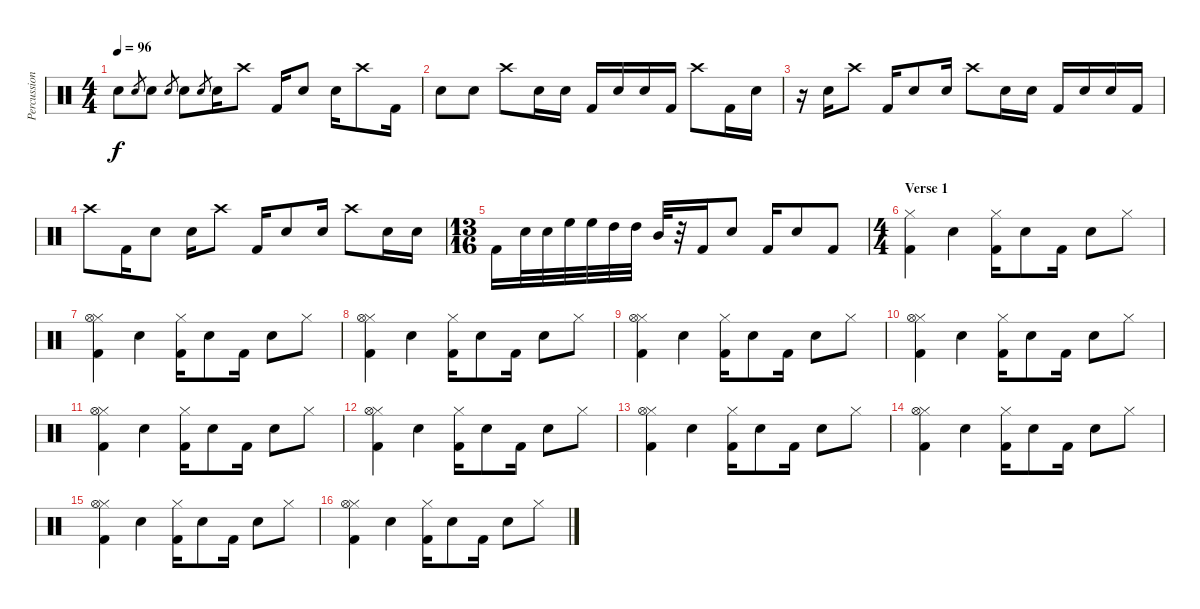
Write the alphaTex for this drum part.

\track ("Percussion" "Percussion") {instrument percussion}
\staff {score}
\articulation defaults
\ts (4 4)
\tempo 96
\clef neutral
\ks c "Electric Snare (hit)".8{dy f} "Electric Snare (hit)".8{gr} "Electric Snare (hit)".8 "Electric Snare (hit)".8{gr} "Electric Snare (hit)".8 "Electric Snare (hit)".8{gr} "Electric Snare (hit)".16 "Crash high (hit)".8 "Kick (hit) 2".16 "Electric Snare (hit)".8 "Electric Snare (hit)".16 "Crash high (hit)".8 "Kick (hit) 2".16
|
"Electric Snare (hit)".8 "Electric Snare (hit)".8 "Crash high (hit)".8 "Electric Snare (hit)".16 "Electric Snare (hit)".16 "Kick (hit) 2".16 "Electric Snare (hit)".16 "Electric Snare (hit)".16 "Kick (hit) 2".16 "Crash high (hit)".8 "Kick (hit) 2".16 "Electric Snare (hit)".16 |
r.16 "Electric Snare (hit)".16 "Crash high (hit)".8 "Kick (hit) 2".16 "Electric Snare (hit)".8 "Electric Snare (hit)".16 "Crash high (hit)".8 "Electric Snare (hit)".16 "Electric Snare (hit)".16 "Kick (hit) 2".16 "Electric Snare (hit)".16 "Electric Snare (hit)".16 "Kick (hit) 2".16 |
"Crash high (hit)".8 "Kick (hit) 2".16 "Electric Snare (hit)".8 "Electric Snare (hit)".16 "Crash high (hit)".8 "Kick (hit) 2".16 "Electric Snare (hit)".8 "Electric Snare (hit)".16 "Crash high (hit)".8 "Electric Snare (hit)".16 "Electric Snare (hit)".16 |
\ts (13 16)
"Kick (hit) 2".16 "Electric Snare (hit)".32 "Electric Snare (hit)".32 "High Floor Tom (hit)".32 "High Floor Tom (hit)".32 "High Tom (hit)".32 "High Tom (hit)".32 "Mid Tom (hit)".32 r.32 "Kick (hit) 2".16 "Electric Snare (hit)".8 "Kick (hit) 2".16 "Electric Snare (hit)".8 "Kick (hit) 2".8 |
\ts (4 4)
\section ("" "Verse 1")
("Hi-Hat (closed)" "Kick (hit) 2").4 "Electric Snare (hit)".4 ("Hi-Hat (closed)" "Kick (hit) 2").16 "Electric Snare (hit)".8 "Kick (hit) 2".16 "Electric Snare (hit)".8 "Hi-Hat (closed)".8 |
("Hi-Hat (closed)" "Hi-Hat (open)" "Kick (hit) 2").4 "Electric Snare (hit)".4 ("Hi-Hat (closed)" "Kick (hit) 2").16 "Electric Snare (hit)".8 "Kick (hit) 2".16 "Electric Snare (hit)".8 "Hi-Hat (closed)".8 |
("Hi-Hat (closed)" "Hi-Hat (open)" "Kick (hit) 2").4 "Electric Snare (hit)".4 ("Hi-Hat (closed)" "Kick (hit) 2").16 "Electric Snare (hit)".8 "Kick (hit) 2".16 "Electric Snare (hit)".8 "Hi-Hat (closed)".8 |
("Hi-Hat (closed)" "Hi-Hat (open)" "Kick (hit) 2").4 "Electric Snare (hit)".4 ("Hi-Hat (closed)" "Kick (hit) 2").16 "Electric Snare (hit)".8 "Kick (hit) 2".16 "Electric Snare (hit)".8 "Hi-Hat (closed)".8 |
("Hi-Hat (closed)" "Hi-Hat (open)" "Kick (hit) 2").4 "Electric Snare (hit)".4 ("Hi-Hat (closed)" "Kick (hit) 2").16 "Electric Snare (hit)".8 "Kick (hit) 2".16 "Electric Snare (hit)".8 "Hi-Hat (closed)".8 |
("Hi-Hat (closed)" "Hi-Hat (open)" "Kick (hit) 2").4 "Electric Snare (hit)".4 ("Hi-Hat (closed)" "Kick (hit) 2").16 "Electric Snare (hit)".8 "Kick (hit) 2".16 "Electric Snare (hit)".8 "Hi-Hat (closed)".8 |
("Hi-Hat (closed)" "Hi-Hat (open)" "Kick (hit) 2").4 "Electric Snare (hit)".4 ("Hi-Hat (closed)" "Kick (hit) 2").16 "Electric Snare (hit)".8 "Kick (hit) 2".16 "Electric Snare (hit)".8 "Hi-Hat (closed)".8 |
("Hi-Hat (closed)" "Hi-Hat (open)" "Kick (hit) 2").4 "Electric Snare (hit)".4 ("Hi-Hat (closed)" "Kick (hit) 2").16 "Electric Snare (hit)".8 "Kick (hit) 2".16 "Electric Snare (hit)".8 "Hi-Hat (closed)".8 |
("Hi-Hat (closed)" "Hi-Hat (open)" "Kick (hit) 2").4 "Electric Snare (hit)".4 ("Hi-Hat (closed)" "Kick (hit) 2").16 "Electric Snare (hit)".8 "Kick (hit) 2".16 "Electric Snare (hit)".8 "Hi-Hat (closed)".8 |
("Hi-Hat (closed)" "Hi-Hat (open)" "Kick (hit) 2").4 "Electric Snare (hit)".4 ("Hi-Hat (closed)" "Kick (hit) 2").16 "Electric Snare (hit)".8 "Kick (hit) 2".16 "Electric Snare (hit)".8 "Hi-Hat (closed)".8 |
("Hi-Hat (closed)" "Hi-Hat (open)" "Kick (hit) 2").4 "Electric Snare (hit)".4 ("Hi-Hat (closed)" "Kick (hit) 2").16 "Electric Snare (hit)".8 "Kick (hit) 2".16 "Electric Snare (hit)".8 "Hi-Hat (closed)".8
